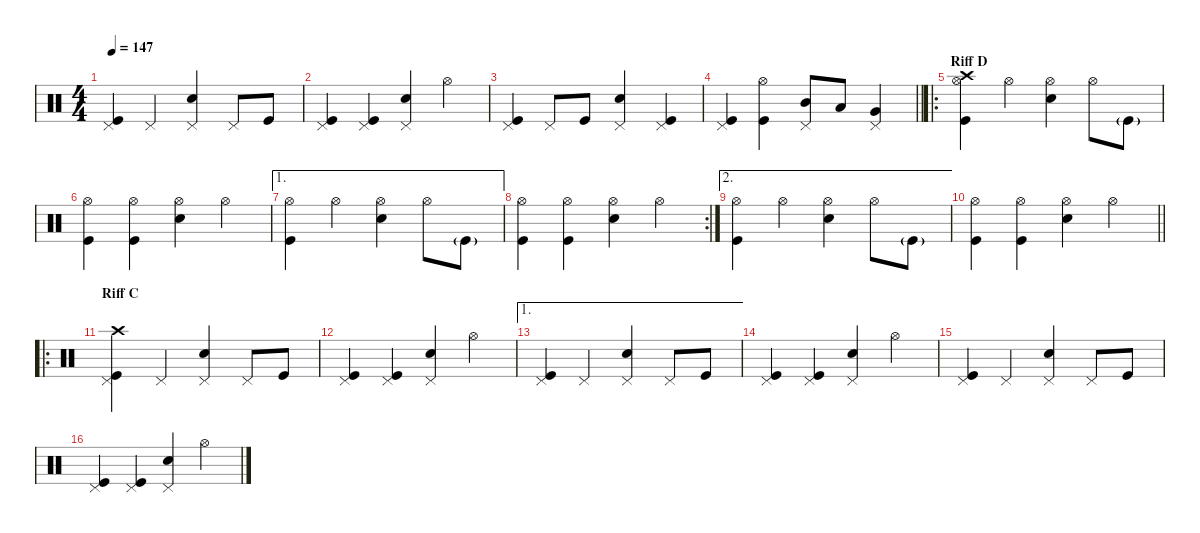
\defaultSystemsLayout 4
\hideDynamics
\bracketExtendMode nobrackets
\singleTrackTrackNamePolicy hidden
\multiTrackTrackNamePolicy hidden
\firstSystemTrackNameMode fullname
\otherSystemsTrackNameOrientation horizontal
\track ("Percussion" "drm.") {instrument percussion}
\staff {score}
\articulation defaults
\ts (4 4)
\tempo 147
\clef neutral
\ks c
("Kick (hit)" "Pedal Hi-Hat (hit)").4{dy f beam Up} "Pedal Hi-Hat (hit)".4{beam Up} ("Snare (hit) 2" "Pedal Hi-Hat (hit)").4{beam Up} "Pedal Hi-Hat (hit)".8{beam Up} "Kick (hit)".8{beam Up} |
("Kick (hit)" "Pedal Hi-Hat (hit)").4{beam Up} ("Kick (hit)" "Pedal Hi-Hat (hit)").4{beam Up} ("Snare (hit) 2" "Pedal Hi-Hat (hit)").4{beam Up} "Hi-Hat (open)".4{beam Down} |
("Kick (hit)" "Pedal Hi-Hat (hit)").4{beam Up} "Pedal Hi-Hat (hit)".8{beam Up} "Kick (hit)".8{beam Up} ("Snare (hit) 2" "Pedal Hi-Hat (hit)").4{beam Up} ("Kick (hit)" "Pedal Hi-Hat (hit)").4{beam Up} |
\barLineRight lightlight
("Kick (hit)" "Pedal Hi-Hat (hit)").4{beam Up} ("Kick (hit)" "Hi-Hat (open)").4{beam Down} ("Mid Tom (hit)" "Pedal Hi-Hat (hit)").8{beam Up} "Low Tom (hit)".8{dy mf beam Up} ("Very Low Tom (hit)" "Pedal Hi-Hat (hit)").4{dy f beam Up} |
\ro
\section ("" "Riff D")
("Crash high (hit)" "Kick (hit)" "Hi-Hat (open)").4{beam Down} "Hi-Hat (open)".4{dy mf beam Down} ("Snare (hit) 2" "Hi-Hat (open)").4{dy f beam Down} "Hi-Hat (open)".8{dy mf beam Down} "Kick (hit)"{g}.8{dy f beam Down} |
("Kick (hit)" "Hi-Hat (open)").4{beam Down} ("Kick (hit)" "Hi-Hat (open)").4{beam Down} ("Snare (hit) 2" "Hi-Hat (open)").4{beam Down} "Hi-Hat (open)".4{dy mf beam Down} |
\ae 1
("Kick (hit)" "Hi-Hat (open)").4{dy f beam Down} "Hi-Hat (open)".4{dy mf beam Down} ("Snare (hit) 2" "Hi-Hat (open)").4{dy f beam Down} "Hi-Hat (open)".8{dy mf beam Down} "Kick (hit)"{g}.8{dy f beam Down} |
\rc 2
("Kick (hit)" "Hi-Hat (open)").4{beam Down} ("Kick (hit)" "Hi-Hat (open)").4{beam Down} ("Snare (hit) 2" "Hi-Hat (open)").4{beam Down} "Hi-Hat (open)".4{dy mf beam Down} |
\ae 2
("Kick (hit)" "Hi-Hat (open)").4{dy f beam Down} "Hi-Hat (open)".4{dy mf beam Down} ("Snare (hit) 2" "Hi-Hat (open)").4{dy f beam Down} "Hi-Hat (open)".8{dy mf beam Down} "Kick (hit)"{g}.8{dy f beam Down} |
\barLineRight lightlight
("Kick (hit)" "Hi-Hat (open)").4{beam Down} ("Kick (hit)" "Hi-Hat (open)").4{beam Down} ("Snare (hit) 2" "Hi-Hat (open)").4{beam Down} "Hi-Hat (open)".4{dy mf beam Down} |
\ro
\section ("" "Riff C")
("Crash high (hit)" "Kick (hit)" "Pedal Hi-Hat (hit)").4{dy f beam Down} "Pedal Hi-Hat (hit)".4{beam Up} ("Snare (hit) 2" "Pedal Hi-Hat (hit)").4{beam Up} "Pedal Hi-Hat (hit)".8{beam Up} "Kick (hit)".8{beam Up} |
("Kick (hit)" "Pedal Hi-Hat (hit)").4{beam Up} ("Kick (hit)" "Pedal Hi-Hat (hit)").4{beam Up} ("Snare (hit) 2" "Pedal Hi-Hat (hit)").4{beam Up} "Hi-Hat (open)".4{beam Down} |
\ae 1
("Kick (hit)" "Pedal Hi-Hat (hit)").4{beam Up} "Pedal Hi-Hat (hit)".4{beam Up} ("Snare (hit) 2" "Pedal Hi-Hat (hit)").4{beam Up} "Pedal Hi-Hat (hit)".8{beam Up} "Kick (hit)".8{beam Up} |
("Kick (hit)" "Pedal Hi-Hat (hit)").4{beam Up} ("Kick (hit)" "Pedal Hi-Hat (hit)").4{beam Up} ("Snare (hit) 2" "Pedal Hi-Hat (hit)").4{beam Up} "Hi-Hat (open)".4{beam Down} |
("Kick (hit)" "Pedal Hi-Hat (hit)").4{beam Up} "Pedal Hi-Hat (hit)".4{beam Up} ("Snare (hit) 2" "Pedal Hi-Hat (hit)").4{beam Up} "Pedal Hi-Hat (hit)".8{beam Up} "Kick (hit)".8{beam Up} |
("Kick (hit)" "Pedal Hi-Hat (hit)").4{beam Up} ("Kick (hit)" "Pedal Hi-Hat (hit)").4{beam Up} ("Snare (hit) 2" "Pedal Hi-Hat (hit)").4{beam Up} "Hi-Hat (open)".4{beam Down}
